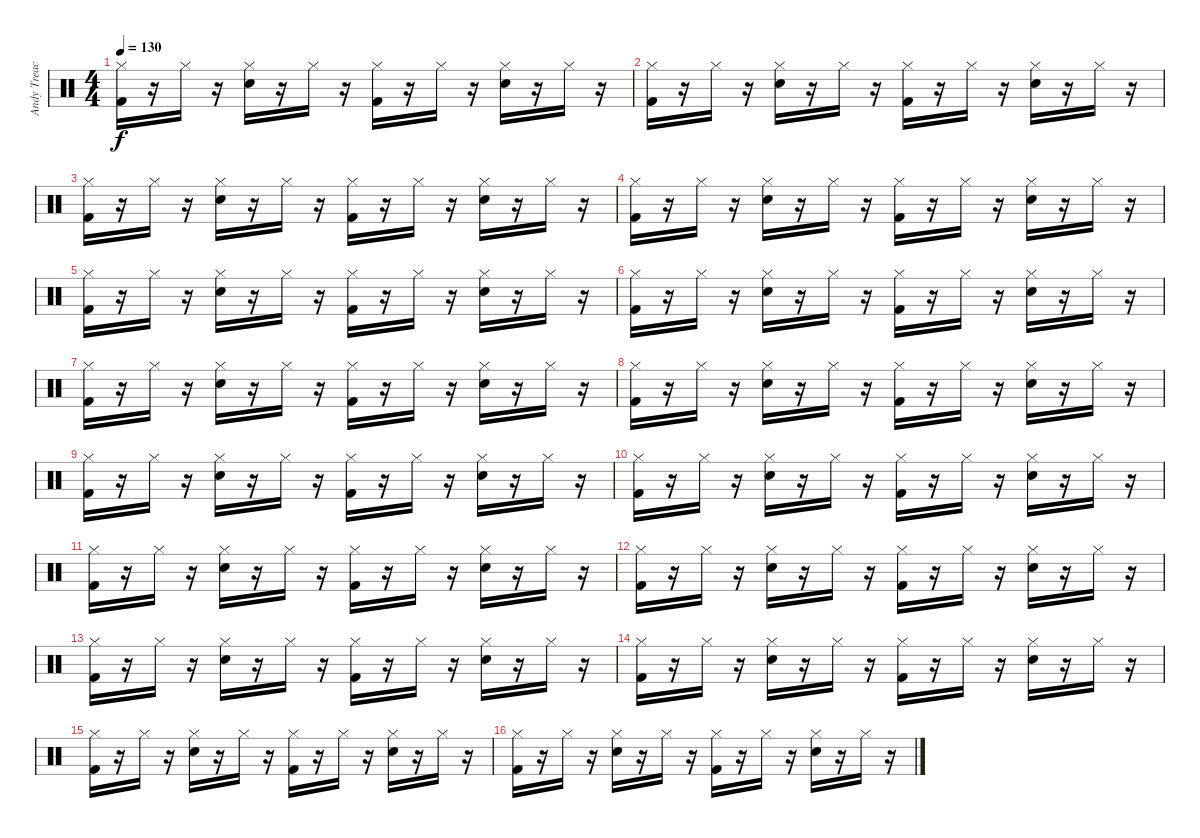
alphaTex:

\track ("Andy Treacey" "Andy Treac") {instrument percussion}
\staff {score}
\articulation defaults
\ts (4 4)
\tempo 130
\clef neutral
\ks c
("Hi-Hat (closed)" "Kick (hit) 2").16{dy f} r.16 "Hi-Hat (closed)".16 r.16 ("Hi-Hat (closed)" "Snare (hit) 2").16 r.16 "Hi-Hat (closed)".16 r.16 ("Hi-Hat (closed)" "Kick (hit) 2").16 r.16 "Hi-Hat (closed)".16 r.16 ("Hi-Hat (closed)" "Snare (hit) 2").16 r.16 "Hi-Hat (closed)".16 r.16 |
("Hi-Hat (closed)" "Kick (hit) 2").16 r.16 "Hi-Hat (closed)".16 r.16 ("Hi-Hat (closed)" "Snare (hit) 2").16 r.16 "Hi-Hat (closed)".16 r.16 ("Hi-Hat (closed)" "Kick (hit) 2").16 r.16 "Hi-Hat (closed)".16 r.16 ("Hi-Hat (closed)" "Snare (hit) 2").16 r.16 "Hi-Hat (closed)".16 r.16 |
("Hi-Hat (closed)" "Kick (hit) 2").16 r.16 "Hi-Hat (closed)".16 r.16 ("Hi-Hat (closed)" "Snare (hit) 2").16 r.16 "Hi-Hat (closed)".16 r.16 ("Hi-Hat (closed)" "Kick (hit) 2").16 r.16 "Hi-Hat (closed)".16 r.16 ("Hi-Hat (closed)" "Snare (hit) 2").16 r.16 "Hi-Hat (closed)".16 r.16 |
("Hi-Hat (closed)" "Kick (hit) 2").16 r.16 "Hi-Hat (closed)".16 r.16 ("Hi-Hat (closed)" "Snare (hit) 2").16 r.16 "Hi-Hat (closed)".16 r.16 ("Hi-Hat (closed)" "Kick (hit) 2").16 r.16 "Hi-Hat (closed)".16 r.16 ("Hi-Hat (closed)" "Snare (hit) 2").16 r.16 "Hi-Hat (closed)".16 r.16 |
("Hi-Hat (closed)" "Kick (hit) 2").16 r.16 "Hi-Hat (closed)".16 r.16 ("Hi-Hat (closed)" "Snare (hit) 2").16 r.16 "Hi-Hat (closed)".16 r.16 ("Hi-Hat (closed)" "Kick (hit) 2").16 r.16 "Hi-Hat (closed)".16 r.16 ("Hi-Hat (closed)" "Snare (hit) 2").16 r.16 "Hi-Hat (closed)".16 r.16 |
("Hi-Hat (closed)" "Kick (hit) 2").16 r.16 "Hi-Hat (closed)".16 r.16 ("Hi-Hat (closed)" "Snare (hit) 2").16 r.16 "Hi-Hat (closed)".16 r.16 ("Hi-Hat (closed)" "Kick (hit) 2").16 r.16 "Hi-Hat (closed)".16 r.16 ("Hi-Hat (closed)" "Snare (hit) 2").16 r.16 "Hi-Hat (closed)".16 r.16 |
("Hi-Hat (closed)" "Kick (hit) 2").16 r.16 "Hi-Hat (closed)".16 r.16 ("Hi-Hat (closed)" "Snare (hit) 2").16 r.16 "Hi-Hat (closed)".16 r.16 ("Hi-Hat (closed)" "Kick (hit) 2").16 r.16 "Hi-Hat (closed)".16 r.16 ("Hi-Hat (closed)" "Snare (hit) 2").16 r.16 "Hi-Hat (closed)".16 r.16 |
("Hi-Hat (closed)" "Kick (hit) 2").16 r.16 "Hi-Hat (closed)".16 r.16 ("Hi-Hat (closed)" "Snare (hit) 2").16 r.16 "Hi-Hat (closed)".16 r.16 ("Hi-Hat (closed)" "Kick (hit) 2").16 r.16 "Hi-Hat (closed)".16 r.16 ("Hi-Hat (closed)" "Snare (hit) 2").16 r.16 "Hi-Hat (closed)".16 r.16 |
("Hi-Hat (closed)" "Kick (hit) 2").16 r.16 "Hi-Hat (closed)".16 r.16 ("Hi-Hat (closed)" "Snare (hit) 2").16 r.16 "Hi-Hat (closed)".16 r.16 ("Hi-Hat (closed)" "Kick (hit) 2").16 r.16 "Hi-Hat (closed)".16 r.16 ("Hi-Hat (closed)" "Snare (hit) 2").16 r.16 "Hi-Hat (closed)".16 r.16 |
("Hi-Hat (closed)" "Kick (hit) 2").16 r.16 "Hi-Hat (closed)".16 r.16 ("Hi-Hat (closed)" "Snare (hit) 2").16 r.16 "Hi-Hat (closed)".16 r.16 ("Hi-Hat (closed)" "Kick (hit) 2").16 r.16 "Hi-Hat (closed)".16 r.16 ("Hi-Hat (closed)" "Snare (hit) 2").16 r.16 "Hi-Hat (closed)".16 r.16 |
("Hi-Hat (closed)" "Kick (hit) 2").16 r.16 "Hi-Hat (closed)".16 r.16 ("Hi-Hat (closed)" "Snare (hit) 2").16 r.16 "Hi-Hat (closed)".16 r.16 ("Hi-Hat (closed)" "Kick (hit) 2").16 r.16 "Hi-Hat (closed)".16 r.16 ("Hi-Hat (closed)" "Snare (hit) 2").16 r.16 "Hi-Hat (closed)".16 r.16 |
("Hi-Hat (closed)" "Kick (hit) 2").16 r.16 "Hi-Hat (closed)".16 r.16 ("Hi-Hat (closed)" "Snare (hit) 2").16 r.16 "Hi-Hat (closed)".16 r.16 ("Hi-Hat (closed)" "Kick (hit) 2").16 r.16 "Hi-Hat (closed)".16 r.16 ("Hi-Hat (closed)" "Snare (hit) 2").16 r.16 "Hi-Hat (closed)".16 r.16 |
("Hi-Hat (closed)" "Kick (hit) 2").16 r.16 "Hi-Hat (closed)".16 r.16 ("Hi-Hat (closed)" "Snare (hit) 2").16 r.16 "Hi-Hat (closed)".16 r.16 ("Hi-Hat (closed)" "Kick (hit) 2").16 r.16 "Hi-Hat (closed)".16 r.16 ("Hi-Hat (closed)" "Snare (hit) 2").16 r.16 "Hi-Hat (closed)".16 r.16 |
("Hi-Hat (closed)" "Kick (hit) 2").16 r.16 "Hi-Hat (closed)".16 r.16 ("Hi-Hat (closed)" "Snare (hit) 2").16 r.16 "Hi-Hat (closed)".16 r.16 ("Hi-Hat (closed)" "Kick (hit) 2").16 r.16 "Hi-Hat (closed)".16 r.16 ("Hi-Hat (closed)" "Snare (hit) 2").16 r.16 "Hi-Hat (closed)".16 r.16 |
("Hi-Hat (closed)" "Kick (hit) 2").16 r.16 "Hi-Hat (closed)".16 r.16 ("Hi-Hat (closed)" "Snare (hit) 2").16 r.16 "Hi-Hat (closed)".16 r.16 ("Hi-Hat (closed)" "Kick (hit) 2").16 r.16 "Hi-Hat (closed)".16 r.16 ("Hi-Hat (closed)" "Snare (hit) 2").16 r.16 "Hi-Hat (closed)".16 r.16 |
("Hi-Hat (closed)" "Kick (hit) 2").16 r.16 "Hi-Hat (closed)".16 r.16 ("Hi-Hat (closed)" "Snare (hit) 2").16 r.16 "Hi-Hat (closed)".16 r.16 ("Hi-Hat (closed)" "Kick (hit) 2").16 r.16 "Hi-Hat (closed)".16 r.16 ("Hi-Hat (closed)" "Snare (hit) 2").16 r.16 "Hi-Hat (closed)".16 r.16
